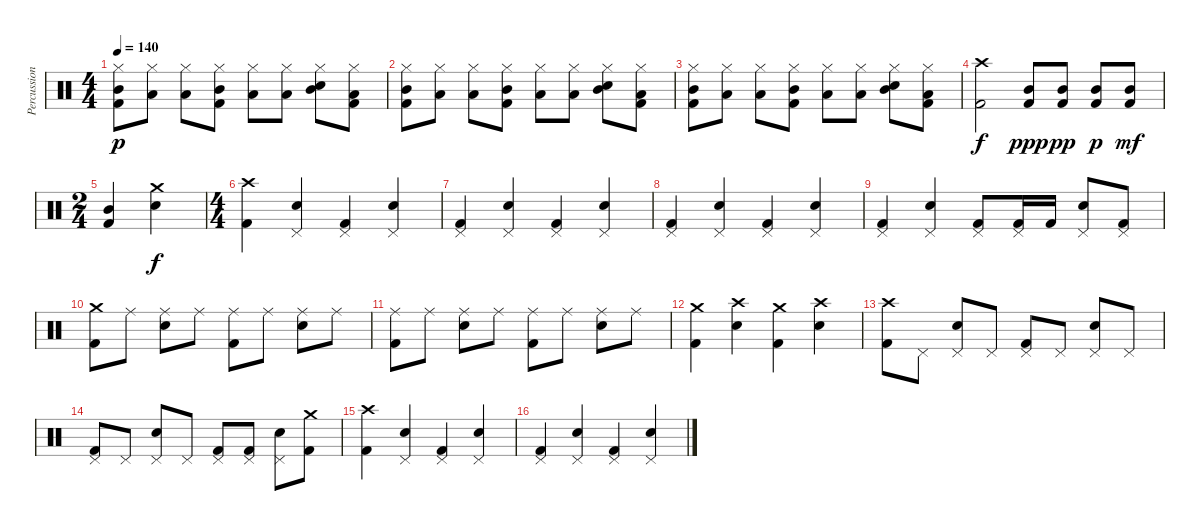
\track ("Percussion" "Percussion") {instrument percussion}
\staff {score}
\articulation defaults
\ts (4 4)
\tempo 140
\clef neutral
\ks c
("Hi-Hat (closed)" "Mid Tom (hit)" "Kick (hit) 2").8{dy p} ("Hi-Hat (closed)" "Low Tom (hit)").8 ("Hi-Hat (closed)" "Low Tom (hit)").8 ("Hi-Hat (closed)" "Mid Tom (hit)" "Kick (hit) 2").8 ("Hi-Hat (closed)" "Low Tom (hit)").8 ("Hi-Hat (closed)" "Low Tom (hit)").8 ("Hi-Hat (closed)" "Mid Tom (hit)" "Snare (hit) 2").8 ("Hi-Hat (closed)" "Low Tom (hit)" "Kick (hit) 2").8 |
("Hi-Hat (closed)" "Mid Tom (hit)" "Kick (hit) 2").8 ("Hi-Hat (closed)" "Low Tom (hit)").8 ("Hi-Hat (closed)" "Low Tom (hit)").8 ("Hi-Hat (closed)" "Mid Tom (hit)" "Kick (hit) 2").8 ("Hi-Hat (closed)" "Low Tom (hit)").8 ("Hi-Hat (closed)" "Low Tom (hit)").8 ("Hi-Hat (closed)" "Mid Tom (hit)" "Snare (hit) 2").8 ("Hi-Hat (closed)" "Low Tom (hit)" "Kick (hit) 2").8 |
("Hi-Hat (closed)" "Mid Tom (hit)" "Kick (hit) 2").8 ("Hi-Hat (closed)" "Low Tom (hit)").8 ("Hi-Hat (closed)" "Low Tom (hit)").8 ("Hi-Hat (closed)" "Mid Tom (hit)" "Kick (hit) 2").8 ("Hi-Hat (closed)" "Low Tom (hit)").8 ("Hi-Hat (closed)" "Low Tom (hit)").8 ("Hi-Hat (closed)" "Mid Tom (hit)" "Snare (hit) 2").8 ("Hi-Hat (closed)" "Low Tom (hit)" "Kick (hit) 2").8 |
("Crash high (hit)" "Kick (hit) 2").2{dy f} ("Mid Tom (hit)" "Kick (hit) 2").8{dy ppp} ("Mid Tom (hit)" "Kick (hit) 2").8{dy pp} ("Mid Tom (hit)" "Kick (hit) 2").8{dy p} ("Mid Tom (hit)" "Kick (hit) 2").8{dy mf} |
\ts (2 4)
("Mid Tom (hit)" "Kick (hit) 2").4 ("Crash medium (hit)" "Snare (hit) 2").4{dy f} |
\ts (4 4)
("Crash high (hit)" "Kick (hit) 2").4 ("Pedal Hi-Hat (hit)" "Snare (hit) 2").4 ("Pedal Hi-Hat (hit)" "Kick (hit) 2").4 ("Pedal Hi-Hat (hit)" "Snare (hit) 2").4 |
("Pedal Hi-Hat (hit)" "Kick (hit) 2").4 ("Pedal Hi-Hat (hit)" "Snare (hit) 2").4 ("Pedal Hi-Hat (hit)" "Kick (hit) 2").4 ("Pedal Hi-Hat (hit)" "Snare (hit) 2").4 |
("Pedal Hi-Hat (hit)" "Kick (hit) 2").4 ("Pedal Hi-Hat (hit)" "Snare (hit) 2").4 ("Pedal Hi-Hat (hit)" "Kick (hit) 2").4 ("Pedal Hi-Hat (hit)" "Snare (hit) 2").4 |
("Pedal Hi-Hat (hit)" "Kick (hit) 2").4 ("Pedal Hi-Hat (hit)" "Snare (hit) 2").4 ("Pedal Hi-Hat (hit)" "Kick (hit) 2").8 ("Pedal Hi-Hat (hit)" "Kick (hit) 2").16 "Kick (hit) 2".16 ("Pedal Hi-Hat (hit)" "Snare (hit) 2").8 ("Pedal Hi-Hat (hit)" "Kick (hit) 2").8 |
("Crash medium (hit)" "Kick (hit) 2").8 "Ride (middle)".8 ("Ride (middle)" "Snare (hit) 2").8 "Ride (middle)".8 ("Ride (middle)" "Kick (hit) 2").8 "Ride (middle)".8 ("Ride (middle)" "Snare (hit) 2").8 "Ride (middle)".8 |
("Ride (middle)" "Kick (hit) 2").8 "Ride (middle)".8 ("Ride (middle)" "Snare (hit) 2").8 "Ride (middle)".8 ("Ride (middle)" "Kick (hit) 2").8 "Ride (middle)".8 ("Ride (middle)" "Snare (hit) 2").8 "Ride (middle)".8 |
("Crash medium (hit)" "Kick (hit) 2").4 ("Crash high (hit)" "Snare (hit) 2").4 ("Crash medium (hit)" "Kick (hit) 2").4 ("Crash high (hit)" "Snare (hit) 2").4 |
("Crash high (hit)" "Kick (hit) 2").8 "Pedal Hi-Hat (hit)".8 ("Pedal Hi-Hat (hit)" "Snare (hit) 2").8 "Pedal Hi-Hat (hit)".8 ("Pedal Hi-Hat (hit)" "Kick (hit) 2").8 "Pedal Hi-Hat (hit)".8 ("Pedal Hi-Hat (hit)" "Snare (hit) 2").8 "Pedal Hi-Hat (hit)".8 |
("Pedal Hi-Hat (hit)" "Kick (hit) 2").8 "Pedal Hi-Hat (hit)".8 ("Pedal Hi-Hat (hit)" "Snare (hit) 2").8 "Pedal Hi-Hat (hit)".8 ("Pedal Hi-Hat (hit)" "Kick (hit) 2").8 ("Pedal Hi-Hat (hit)" "Kick (hit) 2").8 ("Pedal Hi-Hat (hit)" "Snare (hit) 2").8 ("Crash medium (hit)" "Kick (hit) 2").8 |
("Crash high (hit)" "Kick (hit) 2").4 ("Pedal Hi-Hat (hit)" "Snare (hit) 2").4 ("Pedal Hi-Hat (hit)" "Kick (hit) 2").4 ("Pedal Hi-Hat (hit)" "Snare (hit) 2").4 |
("Pedal Hi-Hat (hit)" "Kick (hit) 2").4 ("Pedal Hi-Hat (hit)" "Snare (hit) 2").4 ("Pedal Hi-Hat (hit)" "Kick (hit) 2").4 ("Pedal Hi-Hat (hit)" "Snare (hit) 2").4
